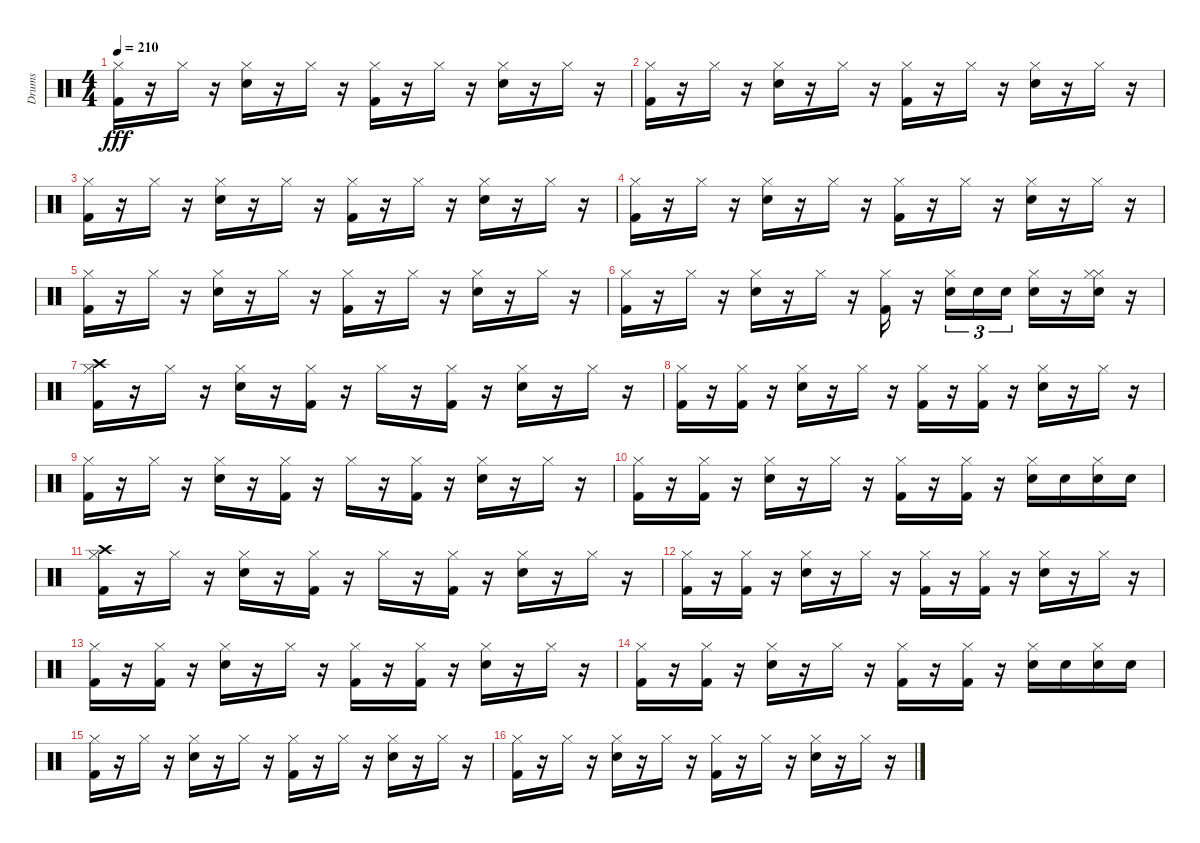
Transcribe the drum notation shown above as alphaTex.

\track ("Drums" "Drums") {instrument percussion}
\staff {score}
\articulation defaults
\ts (4 4)
\tempo 210
\clef neutral
\ks c
("Kick (hit) 2" "Hi-Hat (closed)").16{dy fff} r.16 "Hi-Hat (closed)".16 r.16 ("Snare (hit) 2" "Hi-Hat (closed)").16 r.16 "Hi-Hat (closed)".16 r.16 ("Kick (hit) 2" "Hi-Hat (closed)").16 r.16 "Hi-Hat (closed)".16 r.16 ("Hi-Hat (closed)" "Snare (hit) 2").16 r.16 "Hi-Hat (closed)".16 r.16 |
("Hi-Hat (closed)" "Kick (hit) 2").16 r.16 "Hi-Hat (closed)".16 r.16 ("Snare (hit) 2" "Hi-Hat (closed)").16 r.16 "Hi-Hat (closed)".16 r.16 ("Kick (hit) 2" "Hi-Hat (closed)").16 r.16 "Hi-Hat (closed)".16 r.16 ("Snare (hit) 2" "Hi-Hat (closed)").16 r.16 "Hi-Hat (closed)".16 r.16 |
("Hi-Hat (closed)" "Kick (hit) 2").16 r.16 "Hi-Hat (closed)".16 r.16 ("Snare (hit) 2" "Hi-Hat (closed)").16 r.16 "Hi-Hat (closed)".16 r.16 ("Hi-Hat (closed)" "Kick (hit) 2").16 r.16 "Hi-Hat (closed)".16 r.16 ("Hi-Hat (closed)" "Snare (hit) 2").16 r.16 "Hi-Hat (closed)".16 r.16 |
("Kick (hit) 2" "Hi-Hat (closed)").16 r.16 "Hi-Hat (closed)".16 r.16 ("Hi-Hat (closed)" "Snare (hit) 2").16 r.16 "Hi-Hat (closed)".16 r.16 ("Kick (hit) 2" "Hi-Hat (closed)").16 r.16 "Hi-Hat (closed)".16 r.16 ("Snare (hit) 2" "Hi-Hat (closed)").16 r.16 "Hi-Hat (closed)".16 r.16 |
("Kick (hit) 2" "Hi-Hat (closed)").16 r.16 "Hi-Hat (closed)".16 r.16 ("Hi-Hat (closed)" "Snare (hit) 2").16 r.16 "Hi-Hat (closed)".16 r.16 ("Kick (hit) 2" "Hi-Hat (closed)").16 r.16 "Hi-Hat (closed)".16 r.16 ("Hi-Hat (closed)" "Snare (hit) 2").16 r.16 "Hi-Hat (closed)".16 r.16 |
("Kick (hit) 2" "Hi-Hat (closed)").16 r.16 "Hi-Hat (closed)".16 r.16 ("Hi-Hat (closed)" "Snare (hit) 2").16 r.16 "Hi-Hat (closed)".16 r.16 ("Hi-Hat (closed)" "Kick (hit) 2").16 r.16 ("Hi-Hat (closed)" "Snare (hit) 2").16{tu (3 2)} "Snare (hit) 2".16{tu (3 2)} "Snare (hit) 2".16{tu (3 2)} ("Hi-Hat (closed)" "Snare (hit) 2").16 r.16 ("Snare (hit) 2" "Hi-Hat (closed)" "Hi-Hat (closed)").16 r.16 |
("Crash high (hit)" "Kick (hit) 2" "Hi-Hat (closed)").16 r.16 "Hi-Hat (closed)".16 r.16 ("Hi-Hat (closed)" "Snare (hit) 2").16 r.16 ("Hi-Hat (closed)" "Kick (hit) 2").16 r.16 "Hi-Hat (closed)".16 r.16 ("Kick (hit) 2" "Hi-Hat (closed)").16 r.16 ("Snare (hit) 2" "Hi-Hat (closed)").16 r.16 "Hi-Hat (closed)".16 r.16 |
("Kick (hit) 2" "Hi-Hat (closed)").16 r.16 ("Kick (hit) 2" "Hi-Hat (closed)").16 r.16 ("Hi-Hat (closed)" "Snare (hit) 2").16 r.16 "Hi-Hat (closed)".16 r.16 ("Kick (hit) 2" "Hi-Hat (closed)").16 r.16 ("Hi-Hat (closed)" "Kick (hit) 2").16 r.16 ("Hi-Hat (closed)" "Snare (hit) 2").16 r.16 "Hi-Hat (closed)".16 r.16 |
("Hi-Hat (closed)" "Kick (hit) 2").16 r.16 "Hi-Hat (closed)".16 r.16 ("Snare (hit) 2" "Hi-Hat (closed)").16 r.16 ("Kick (hit) 2" "Hi-Hat (closed)").16 r.16 "Hi-Hat (closed)".16 r.16 ("Kick (hit) 2" "Hi-Hat (closed)").16 r.16 ("Snare (hit) 2" "Hi-Hat (closed)").16 r.16 "Hi-Hat (closed)".16 r.16 |
("Hi-Hat (closed)" "Kick (hit) 2").16 r.16 ("Hi-Hat (closed)" "Kick (hit) 2").16 r.16 ("Hi-Hat (closed)" "Snare (hit) 2").16 r.16 "Hi-Hat (closed)".16 r.16 ("Hi-Hat (closed)" "Kick (hit) 2").16 r.16 ("Hi-Hat (closed)" "Kick (hit) 2").16 r.16 ("Hi-Hat (closed)" "Snare (hit) 2").16 "Snare (hit) 2".16 ("Hi-Hat (closed)" "Snare (hit) 2").16 "Snare (hit) 2".16 |
("Crash high (hit)" "Hi-Hat (closed)" "Kick (hit) 2").16 r.16 "Hi-Hat (closed)".16 r.16 ("Snare (hit) 2" "Hi-Hat (closed)").16 r.16 ("Kick (hit) 2" "Hi-Hat (closed)").16 r.16 "Hi-Hat (closed)".16 r.16 ("Hi-Hat (closed)" "Kick (hit) 2").16 r.16 ("Hi-Hat (closed)" "Snare (hit) 2").16 r.16 "Hi-Hat (closed)".16 r.16 |
("Kick (hit) 2" "Hi-Hat (closed)").16 r.16 ("Hi-Hat (closed)" "Kick (hit) 2").16 r.16 ("Snare (hit) 2" "Hi-Hat (closed)").16 r.16 "Hi-Hat (closed)".16 r.16 ("Hi-Hat (closed)" "Kick (hit) 2").16 r.16 ("Hi-Hat (closed)" "Kick (hit) 2").16 r.16 ("Snare (hit) 2" "Hi-Hat (closed)").16 r.16 "Hi-Hat (closed)".16 r.16 |
("Kick (hit) 2" "Hi-Hat (closed)").16 r.16 ("Hi-Hat (closed)" "Kick (hit) 2").16 r.16 ("Hi-Hat (closed)" "Snare (hit) 2").16 r.16 "Hi-Hat (closed)".16 r.16 ("Kick (hit) 2" "Hi-Hat (closed)").16 r.16 ("Kick (hit) 2" "Hi-Hat (closed)").16 r.16 ("Hi-Hat (closed)" "Snare (hit) 2").16 r.16 "Hi-Hat (closed)".16 r.16 |
("Hi-Hat (closed)" "Kick (hit) 2").16 r.16 ("Kick (hit) 2" "Hi-Hat (closed)").16 r.16 ("Snare (hit) 2" "Hi-Hat (closed)").16 r.16 "Hi-Hat (closed)".16 r.16 ("Hi-Hat (closed)" "Kick (hit) 2").16 r.16 ("Hi-Hat (closed)" "Kick (hit) 2").16 r.16 ("Snare (hit) 2" "Hi-Hat (closed)").16 "Snare (hit) 2".16 ("Snare (hit) 2" "Hi-Hat (closed)").16 "Snare (hit) 2".16 |
("Kick (hit) 2" "Hi-Hat (closed)").16 r.16 "Hi-Hat (closed)".16 r.16 ("Hi-Hat (closed)" "Snare (hit) 2").16 r.16 "Hi-Hat (closed)".16 r.16 ("Hi-Hat (closed)" "Kick (hit) 2").16 r.16 "Hi-Hat (closed)".16 r.16 ("Hi-Hat (closed)" "Snare (hit) 2").16 r.16 "Hi-Hat (closed)".16 r.16 |
("Kick (hit) 2" "Hi-Hat (closed)").16 r.16 "Hi-Hat (closed)".16 r.16 ("Snare (hit) 2" "Hi-Hat (closed)").16 r.16 "Hi-Hat (closed)".16 r.16 ("Kick (hit) 2" "Hi-Hat (closed)").16 r.16 "Hi-Hat (closed)".16 r.16 ("Hi-Hat (closed)" "Snare (hit) 2").16 r.16 "Hi-Hat (closed)".16 r.16
